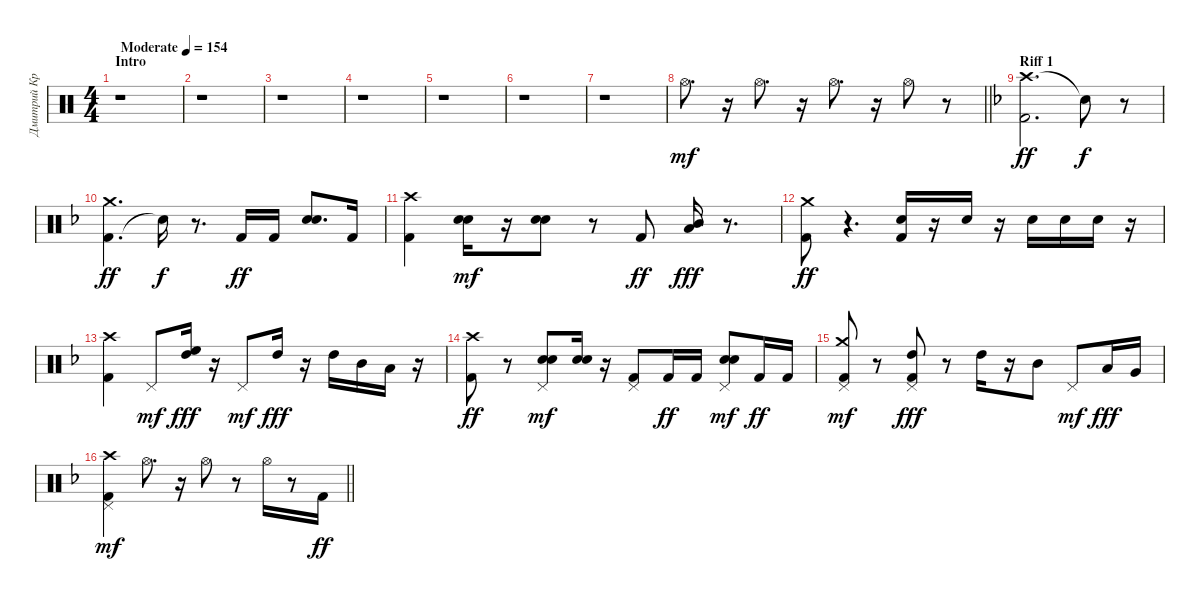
\track ("Дмитрий Кривенков" "Дмитрий Кр") {instrument percussion}
\staff {score}
\articulation defaults
\ts (4 4)
\section ("" "Intro")
\tempo (154 "Moderate")
\clef neutral
\ks c
r.1{dy mf} |
r.1 |
r.1 |
r.1 |
r.1 |
r.1 |
r.1 |
\barLineRight lightlight "Hi-Hat (open)".8{d}
r.16 "Hi-Hat (open)".8{d} r.16 "Hi-Hat (open)".8{d} r.16 "Hi-Hat (open)".8 r.8 |
\section ("" "Riff 1")
\ks f
("Crash high (hit)" "Kick (hit) 2").2{d dy ff} "Snare (hit)"{t}.8{dy f} r.8 |
("Kick (hit) 2" "Crash medium (hit)").4{d dy ff} "Snare (hit)"{t}.16{dy f} r.8{d} "Kick (hit) 2".16{dy ff} "Kick (hit) 2".16 ("Electric Snare (hit)" "Electric Snare (hit)").8{d} "Kick (hit) 2".16 |
("Kick (hit) 2" "Crash high (hit)").4 ("Electric Snare (hit)" "Electric Snare (hit)").16{dy mf} r.16 ("Electric Snare (hit)" "Electric Snare (hit)").8 r.8 "Kick (hit) 2".8{dy ff} ("Low Tom (hit)" "Mid Tom (hit)").16{dy fff} r.8{d} |
("Kick (hit) 2" "Crash medium (hit)").8{dy ff} r.4{d} ("Kick (hit) 2" "Electric Snare (hit)").16 r.16 "Electric Snare (hit)".16 r.16 "Electric Snare (hit)".16 "Electric Snare (hit)".16 "Electric Snare (hit)".16 r.16 |
("Kick (hit) 2" "Crash high (hit)").4 "Pedal Hi-Hat (hit)".8{dy mf} ("High Tom (hit)" "High Floor Tom (hit)").16{dy fff} r.16 "Pedal Hi-Hat (hit)".8{dy mf} "High Tom (hit)".16{dy fff} r.16 "High Tom (hit)".16 "Mid Tom (hit)".16 "Low Tom (hit)".16 r.16 |
("Kick (hit) 2" "Crash high (hit)").8{dy ff} r.8 ("Electric Snare (hit)" "Electric Snare (hit)" "Pedal Hi-Hat (hit)").8{dy mf} ("Electric Snare (hit)" "Electric Snare (hit)").16 r.16 ("Kick (hit) 2" "Pedal Hi-Hat (hit)").8 "Kick (hit) 2".16{dy ff} "Kick (hit) 2".16 ("Electric Snare (hit)" "Electric Snare (hit)" "Pedal Hi-Hat (hit)").8{dy mf} "Kick (hit) 2".16{dy ff} "Kick (hit) 2".16 |
("Kick (hit) 2" "Pedal Hi-Hat (hit)" "Crash medium (hit)").8{dy mf} r.8 ("Kick (hit) 2" "Pedal Hi-Hat (hit)" "High Tom (hit)").8{dy fff} r.8 "High Tom (hit)".16 r.16 "Mid Tom (hit)".8 "Pedal Hi-Hat (hit)".8{dy mf} "Low Tom (hit)".16{dy fff} "Very Low Tom (hit)".16 |
\barLineRight lightlight
("Kick (hit) 2" "Pedal Hi-Hat (hit)" "Crash high (hit)").4{dy mf} "Hi-Hat (open)".8{d} r.16 "Hi-Hat (open)".8 r.8 "Hi-Hat (open)".16 r.8 "Kick (hit) 2".16{dy ff}
